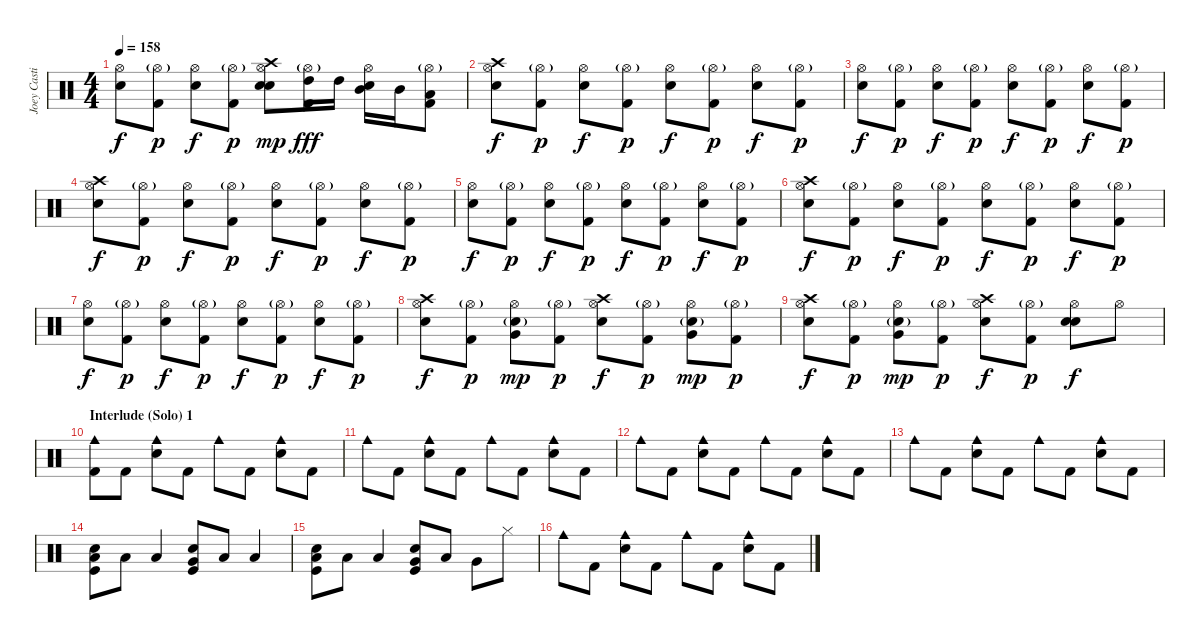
\track ("Joey Castillo" "Joey Casti") {instrument percussion}
\staff {score}
\articulation defaults
\ts (4 4)
\tempo 158
\clef neutral
\ks c
("Hi-Hat (open)" "Electric Snare (hit)").8{dy f} ("Hi-Hat (open)"{g} "Kick (hit) 2").8{dy p} ("Hi-Hat (open)" "Electric Snare (hit)").8{dy f} ("Hi-Hat (open)"{g} "Kick (hit) 2").8{dy p} ("Hi-Hat (open)" "Crash high (hit)" "Electric Snare (hit)" "Snare (hit) 2").8{dy mp} ("Hi-Hat (open)"{g} "High Tom (hit)" "Kick (hit) 2").16{dy fff} "High Tom (hit)".16 ("Hi-Hat (open)" "Mid Tom (hit)" "Electric Snare (hit)").16 "Mid Tom (hit)".16 ("Hi-Hat (open)"{g} "Low Tom (hit)" "Kick (hit) 2").8 |
("Hi-Hat (open)" "Crash high (hit)" "Electric Snare (hit)").8{dy f} ("Hi-Hat (open)"{g} "Kick (hit) 2").8{dy p} ("Hi-Hat (open)" "Electric Snare (hit)").8{dy f} ("Hi-Hat (open)"{g} "Kick (hit) 2").8{dy p} ("Hi-Hat (open)" "Electric Snare (hit)").8{dy f} ("Hi-Hat (open)"{g} "Kick (hit) 2").8{dy p} ("Hi-Hat (open)" "Electric Snare (hit)").8{dy f} ("Hi-Hat (open)"{g} "Kick (hit) 2").8{dy p} |
("Hi-Hat (open)" "Electric Snare (hit)").8{dy f} ("Hi-Hat (open)"{g} "Kick (hit) 2").8{dy p} ("Hi-Hat (open)" "Electric Snare (hit)").8{dy f} ("Hi-Hat (open)"{g} "Kick (hit) 2").8{dy p} ("Hi-Hat (open)" "Electric Snare (hit)").8{dy f} ("Hi-Hat (open)"{g} "Kick (hit) 2").8{dy p} ("Hi-Hat (open)" "Electric Snare (hit)").8{dy f} ("Hi-Hat (open)"{g} "Kick (hit) 2").8{dy p} |
("Hi-Hat (open)" "Crash high (hit)" "Electric Snare (hit)").8{dy f} ("Hi-Hat (open)"{g} "Kick (hit) 2").8{dy p} ("Hi-Hat (open)" "Electric Snare (hit)").8{dy f} ("Hi-Hat (open)"{g} "Kick (hit) 2").8{dy p} ("Hi-Hat (open)" "Electric Snare (hit)").8{dy f} ("Hi-Hat (open)"{g} "Kick (hit) 2").8{dy p} ("Hi-Hat (open)" "Electric Snare (hit)").8{dy f} ("Hi-Hat (open)"{g} "Kick (hit) 2").8{dy p} |
("Hi-Hat (open)" "Electric Snare (hit)").8{dy f} ("Hi-Hat (open)"{g} "Kick (hit) 2").8{dy p} ("Hi-Hat (open)" "Electric Snare (hit)").8{dy f} ("Hi-Hat (open)"{g} "Kick (hit) 2").8{dy p} ("Hi-Hat (open)" "Electric Snare (hit)").8{dy f} ("Hi-Hat (open)"{g} "Kick (hit) 2").8{dy p} ("Hi-Hat (open)" "Electric Snare (hit)").8{dy f} ("Hi-Hat (open)"{g} "Kick (hit) 2").8{dy p} |
("Hi-Hat (open)" "Crash high (hit)" "Electric Snare (hit)").8{dy f} ("Hi-Hat (open)"{g} "Kick (hit) 2").8{dy p} ("Hi-Hat (open)" "Electric Snare (hit)").8{dy f} ("Hi-Hat (open)"{g} "Kick (hit) 2").8{dy p} ("Hi-Hat (open)" "Electric Snare (hit)").8{dy f} ("Hi-Hat (open)"{g} "Kick (hit) 2").8{dy p} ("Hi-Hat (open)" "Electric Snare (hit)").8{dy f} ("Hi-Hat (open)"{g} "Kick (hit) 2").8{dy p} |
("Hi-Hat (open)" "Electric Snare (hit)").8{dy f} ("Hi-Hat (open)"{g} "Kick (hit) 2").8{dy p} ("Hi-Hat (open)" "Electric Snare (hit)").8{dy f} ("Hi-Hat (open)"{g} "Kick (hit) 2").8{dy p} ("Hi-Hat (open)" "Electric Snare (hit)").8{dy f} ("Hi-Hat (open)"{g} "Kick (hit) 2").8{dy p} ("Hi-Hat (open)" "Electric Snare (hit)").8{dy f} ("Hi-Hat (open)"{g} "Kick (hit) 2").8{dy p} |
("Hi-Hat (open)" "Crash high (hit)" "Electric Snare (hit)").8{dy f} ("Hi-Hat (open)"{g} "Kick (hit) 2").8{dy p} ("Hi-Hat (open)" "Very Low Tom (hit)" "Electric Snare (hit)"{g}).8{dy mp} ("Hi-Hat (open)"{g} "Kick (hit) 2").8{dy p} ("Hi-Hat (open)" "Crash high (hit)" "Electric Snare (hit)").8{dy f} ("Hi-Hat (open)"{g} "Kick (hit) 2").8{dy p} ("Hi-Hat (open)" "Very Low Tom (hit)" "Electric Snare (hit)"{g}).8{dy mp} ("Hi-Hat (open)"{g} "Kick (hit) 2").8{dy p} |
("Hi-Hat (open)" "Crash high (hit)" "Electric Snare (hit)").8{dy f} ("Hi-Hat (open)"{g} "Kick (hit) 2").8{dy p} ("Hi-Hat (open)" "Very Low Tom (hit)" "Electric Snare (hit)"{g}).8{dy mp} ("Hi-Hat (open)"{g} "Kick (hit) 2").8{dy p} ("Hi-Hat (open)" "Crash high (hit)" "Electric Snare (hit)").8{dy f} ("Hi-Hat (open)"{g} "Kick (hit) 2").8{dy p} ("Hi-Hat (open)" "Electric Snare (hit)" "Electric Snare (hit)").8{dy f} "Hi-Hat (open)".8 |
\section ("" "Interlude (Solo) 1")
("Cowbell medium (hit)" "Kick (hit) 2").8 "Kick (hit) 2".8 ("Cowbell medium (hit)" "Electric Snare (hit)").8 "Kick (hit) 2".8 "Cowbell medium (hit)".8 "Kick (hit) 2".8 ("Cowbell medium (hit)" "Electric Snare (hit)").8 "Kick (hit) 2".8 |
"Cowbell medium (hit)".8 "Kick (hit) 2".8 ("Cowbell medium (hit)" "Electric Snare (hit)").8 "Kick (hit) 2".8 "Cowbell medium (hit)".8 "Kick (hit) 2".8 ("Cowbell medium (hit)" "Electric Snare (hit)").8 "Kick (hit) 2".8 |
"Cowbell medium (hit)".8 "Kick (hit) 2".8 ("Cowbell medium (hit)" "Electric Snare (hit)").8 "Kick (hit) 2".8 "Cowbell medium (hit)".8 "Kick (hit) 2".8 ("Cowbell medium (hit)" "Electric Snare (hit)").8 "Kick (hit) 2".8 |
"Cowbell medium (hit)".8 "Kick (hit) 2".8 ("Cowbell medium (hit)" "Electric Snare (hit)").8 "Kick (hit) 2".8 "Cowbell medium (hit)".8 "Kick (hit) 2".8 ("Cowbell medium (hit)" "Electric Snare (hit)").8 "Kick (hit) 2".8 |
("Electric Snare (hit)" "Kick (hit)" "Low Floor Tom (hit)").8 "Low Floor Tom (hit)".8 "Low Floor Tom (hit)".4 ("Electric Snare (hit)" "Kick (hit)" "Very Low Tom (hit)").8 "Low Floor Tom (hit)".8 "Low Floor Tom (hit)".4 |
("Electric Snare (hit)" "Kick (hit)" "Low Floor Tom (hit)").8 "Low Floor Tom (hit)".8 "Low Floor Tom (hit)".4 ("Electric Snare (hit)" "Kick (hit)" "Very Low Tom (hit)").8 "Low Floor Tom (hit)".8 "Very Low Tom (hit)".8 "Hi-Hat (closed)".8 |
"Cowbell medium (hit)".8 "Kick (hit) 2".8 ("Cowbell medium (hit)" "Electric Snare (hit)").8 "Kick (hit) 2".8 "Cowbell medium (hit)".8 "Kick (hit) 2".8 ("Cowbell medium (hit)" "Electric Snare (hit)").8 "Kick (hit) 2".8
